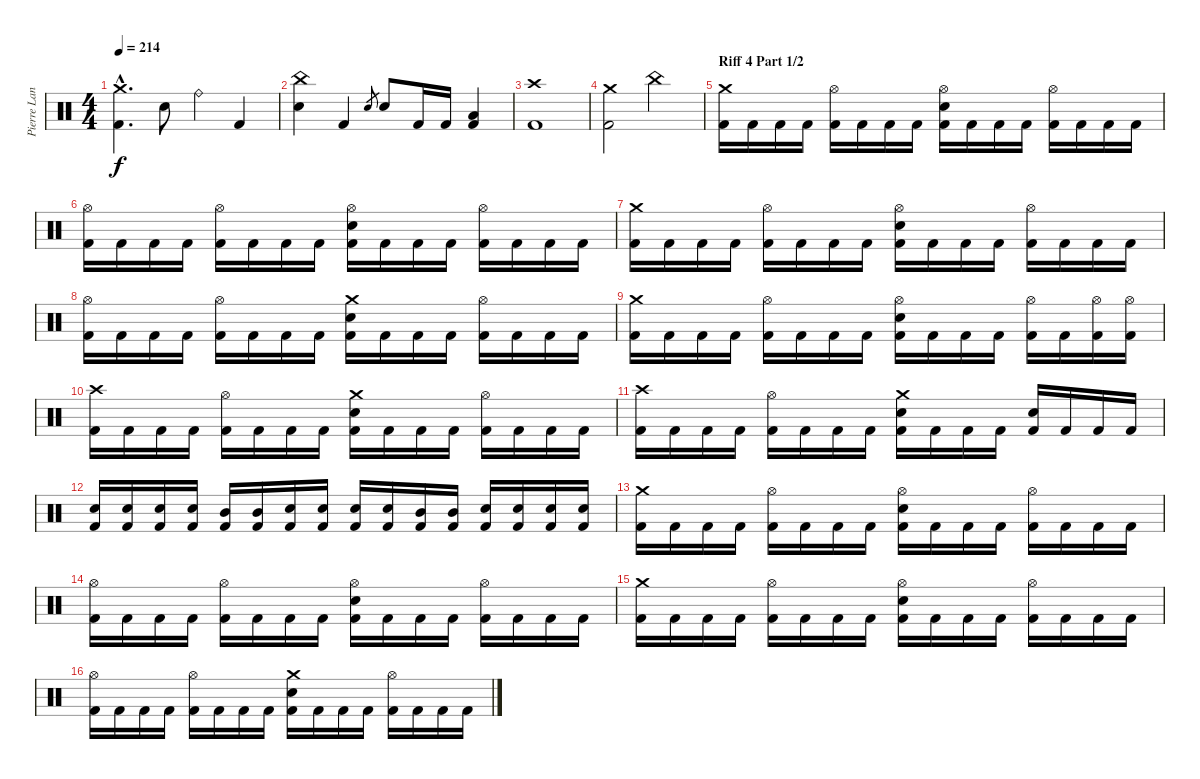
\track ("Pierre Langlois (Drums)" "Pierre Lan") {instrument percussion}
\staff {score}
\articulation defaults
\ts (4 4)
\tempo 214
\clef neutral
\ks c
("Crash medium (hit)"{hac} "Kick (hit) 2"{hac}).4{d dy f} "Snare (hit) 2".8 "Ride (bell)".4 "Kick (hit) 2".4 |
("China (hit)" "Snare (hit) 2").4 "Kick (hit) 2".4 "Snare (hit) 2".8{gr} "Snare (hit) 2".8 "Kick (hit) 2".16 "Kick (hit) 2".16 ("Low Floor Tom (hit)" "Kick (hit) 2").4 |
("Crash high (hit)" "Kick (hit) 2").1 |
("Crash medium (hit)" "Kick (hit) 2").2 "China (hit)".2 |
\section ("" "Riff 4 Part 1/2")
("Crash medium (hit)" "Kick (hit) 2").16 "Kick (hit) 2".16 "Kick (hit) 2".16 "Kick (hit) 2".16 ("Hi-Hat (open)" "Kick (hit) 2").16 "Kick (hit) 2".16 "Kick (hit) 2".16 "Kick (hit) 2".16 ("Hi-Hat (open)" "Snare (hit) 2" "Kick (hit) 2").16 "Kick (hit) 2".16 "Kick (hit) 2".16 "Kick (hit) 2".16 ("Hi-Hat (open)" "Kick (hit) 2").16 "Kick (hit) 2".16 "Kick (hit) 2".16 "Kick (hit) 2".16 |
("Hi-Hat (open)" "Kick (hit) 2").16 "Kick (hit) 2".16 "Kick (hit) 2".16 "Kick (hit) 2".16 ("Hi-Hat (open)" "Kick (hit) 2").16 "Kick (hit) 2".16 "Kick (hit) 2".16 "Kick (hit) 2".16 ("Hi-Hat (open)" "Snare (hit) 2" "Kick (hit) 2").16 "Kick (hit) 2".16 "Kick (hit) 2".16 "Kick (hit) 2".16 ("Hi-Hat (open)" "Kick (hit) 2").16 "Kick (hit) 2".16 "Kick (hit) 2".16 "Kick (hit) 2".16 |
("Crash medium (hit)" "Kick (hit) 2").16 "Kick (hit) 2".16 "Kick (hit) 2".16 "Kick (hit) 2".16 ("Hi-Hat (open)" "Kick (hit) 2").16 "Kick (hit) 2".16 "Kick (hit) 2".16 "Kick (hit) 2".16 ("Hi-Hat (open)" "Snare (hit) 2" "Kick (hit) 2").16 "Kick (hit) 2".16 "Kick (hit) 2".16 "Kick (hit) 2".16 ("Hi-Hat (open)" "Kick (hit) 2").16 "Kick (hit) 2".16 "Kick (hit) 2".16 "Kick (hit) 2".16 |
("Hi-Hat (open)" "Kick (hit) 2").16 "Kick (hit) 2".16 "Kick (hit) 2".16 "Kick (hit) 2".16 ("Hi-Hat (open)" "Kick (hit) 2").16 "Kick (hit) 2".16 "Kick (hit) 2".16 "Kick (hit) 2".16 ("Crash medium (hit)" "Snare (hit) 2" "Kick (hit) 2").16 "Kick (hit) 2".16 "Kick (hit) 2".16 "Kick (hit) 2".16 ("Hi-Hat (open)" "Kick (hit) 2").16 "Kick (hit) 2".16 "Kick (hit) 2".16 "Kick (hit) 2".16 |
("Crash medium (hit)" "Kick (hit) 2").16 "Kick (hit) 2".16 "Kick (hit) 2".16 "Kick (hit) 2".16 ("Hi-Hat (open)" "Kick (hit) 2").16 "Kick (hit) 2".16 "Kick (hit) 2".16 "Kick (hit) 2".16 ("Hi-Hat (open)" "Snare (hit) 2" "Kick (hit) 2").16 "Kick (hit) 2".16 "Kick (hit) 2".16 "Kick (hit) 2".16 ("Hi-Hat (open)" "Kick (hit) 2").16 "Kick (hit) 2".16 ("Hi-Hat (open)" "Kick (hit) 2").16 ("Hi-Hat (open)" "Kick (hit) 2").16 |
("Crash high (hit)" "Kick (hit) 2").16 "Kick (hit) 2".16 "Kick (hit) 2".16 "Kick (hit) 2".16 ("Hi-Hat (open)" "Kick (hit) 2").16 "Kick (hit) 2".16 "Kick (hit) 2".16 "Kick (hit) 2".16 ("Crash medium (hit)" "Snare (hit) 2" "Kick (hit) 2").16 "Kick (hit) 2".16 "Kick (hit) 2".16 "Kick (hit) 2".16 ("Hi-Hat (open)" "Kick (hit) 2").16 "Kick (hit) 2".16 "Kick (hit) 2".16 "Kick (hit) 2".16 |
("Crash high (hit)" "Kick (hit) 2").16 "Kick (hit) 2".16 "Kick (hit) 2".16 "Kick (hit) 2".16 ("Hi-Hat (open)" "Kick (hit) 2").16 "Kick (hit) 2".16 "Kick (hit) 2".16 "Kick (hit) 2".16 ("Crash medium (hit)" "Snare (hit) 2" "Kick (hit) 2").16 "Kick (hit) 2".16 "Kick (hit) 2".16 "Kick (hit) 2".16 ("Snare (hit) 2" "Kick (hit) 2").16 "Kick (hit) 2".16 "Kick (hit) 2".16 "Kick (hit) 2".16 |
("Snare (hit) 2" "Kick (hit) 2").16 ("Snare (hit) 2" "Kick (hit) 2").16 ("Snare (hit) 2" "Kick (hit) 2").16 ("Snare (hit) 2" "Kick (hit) 2").16 ("Mid Tom (hit)" "Kick (hit) 2").16 ("Mid Tom (hit)" "Kick (hit) 2").16 ("Snare (hit) 2" "Kick (hit) 2").16 ("Snare (hit) 2" "Kick (hit) 2").16 ("Snare (hit) 2" "Kick (hit) 2").16 ("Snare (hit) 2" "Kick (hit) 2").16 ("Mid Tom (hit)" "Kick (hit) 2").16 ("Mid Tom (hit)" "Kick (hit) 2").16 ("Snare (hit) 2" "Kick (hit) 2").16 ("Snare (hit) 2" "Kick (hit) 2").16 ("Snare (hit) 2" "Kick (hit) 2").16 ("Snare (hit) 2" "Kick (hit) 2").16 |
("Crash medium (hit)" "Kick (hit) 2").16 "Kick (hit) 2".16 "Kick (hit) 2".16 "Kick (hit) 2".16 ("Hi-Hat (open)" "Kick (hit) 2").16 "Kick (hit) 2".16 "Kick (hit) 2".16 "Kick (hit) 2".16 ("Hi-Hat (open)" "Snare (hit) 2" "Kick (hit) 2").16 "Kick (hit) 2".16 "Kick (hit) 2".16 "Kick (hit) 2".16 ("Hi-Hat (open)" "Kick (hit) 2").16 "Kick (hit) 2".16 "Kick (hit) 2".16 "Kick (hit) 2".16 |
("Hi-Hat (open)" "Kick (hit) 2").16 "Kick (hit) 2".16 "Kick (hit) 2".16 "Kick (hit) 2".16 ("Hi-Hat (open)" "Kick (hit) 2").16 "Kick (hit) 2".16 "Kick (hit) 2".16 "Kick (hit) 2".16 ("Hi-Hat (open)" "Snare (hit) 2" "Kick (hit) 2").16 "Kick (hit) 2".16 "Kick (hit) 2".16 "Kick (hit) 2".16 ("Hi-Hat (open)" "Kick (hit) 2").16 "Kick (hit) 2".16 "Kick (hit) 2".16 "Kick (hit) 2".16 |
("Crash medium (hit)" "Kick (hit) 2").16 "Kick (hit) 2".16 "Kick (hit) 2".16 "Kick (hit) 2".16 ("Hi-Hat (open)" "Kick (hit) 2").16 "Kick (hit) 2".16 "Kick (hit) 2".16 "Kick (hit) 2".16 ("Hi-Hat (open)" "Snare (hit) 2" "Kick (hit) 2").16 "Kick (hit) 2".16 "Kick (hit) 2".16 "Kick (hit) 2".16 ("Hi-Hat (open)" "Kick (hit) 2").16 "Kick (hit) 2".16 "Kick (hit) 2".16 "Kick (hit) 2".16 |
("Hi-Hat (open)" "Kick (hit) 2").16 "Kick (hit) 2".16 "Kick (hit) 2".16 "Kick (hit) 2".16 ("Hi-Hat (open)" "Kick (hit) 2").16 "Kick (hit) 2".16 "Kick (hit) 2".16 "Kick (hit) 2".16 ("Crash medium (hit)" "Snare (hit) 2" "Kick (hit) 2").16 "Kick (hit) 2".16 "Kick (hit) 2".16 "Kick (hit) 2".16 ("Hi-Hat (open)" "Kick (hit) 2").16 "Kick (hit) 2".16 "Kick (hit) 2".16 "Kick (hit) 2".16
